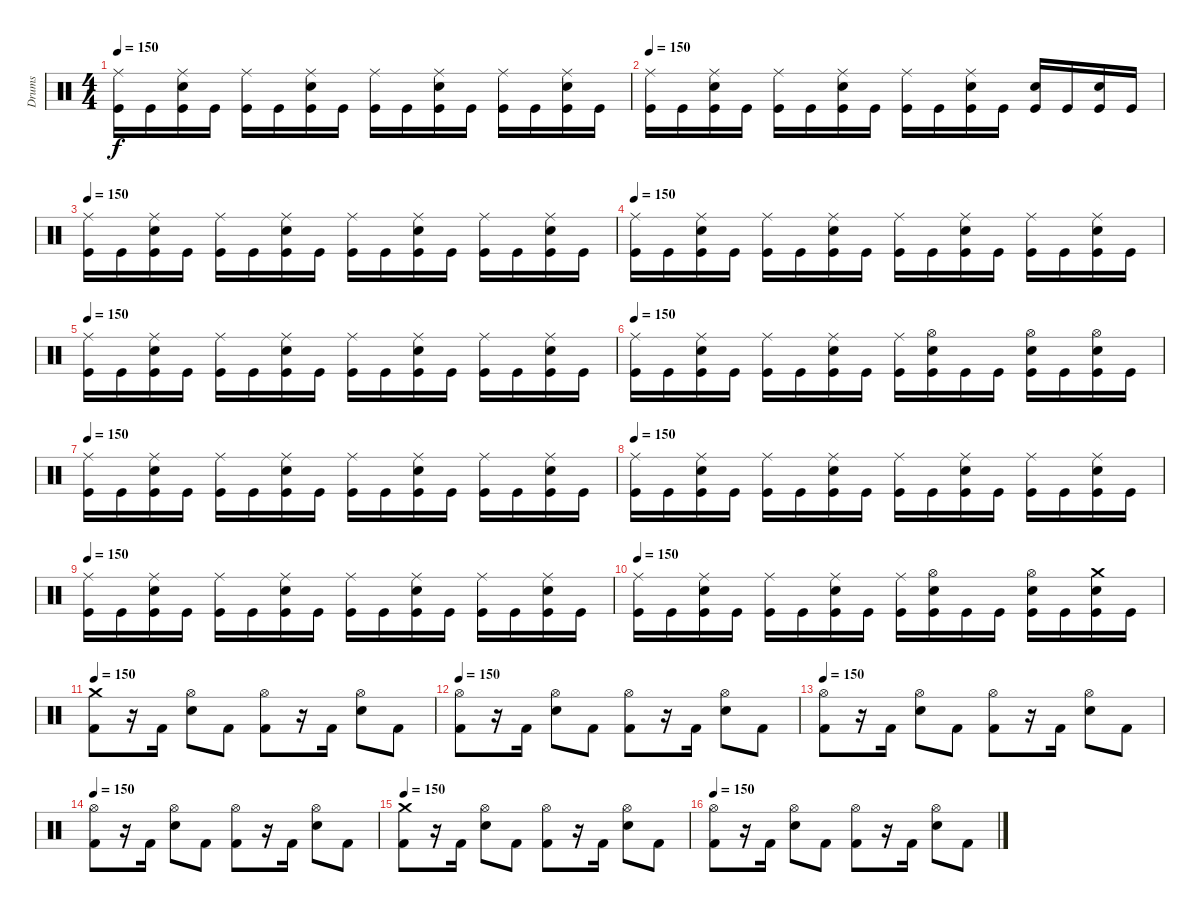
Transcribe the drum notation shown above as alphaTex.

\track ("Drums" "Drums") {instrument percussion}
\staff {score}
\articulation defaults
\ts (4 4)
\tempo 150
\clef neutral
\ks c
("Kick (hit)" "Ride (middle)").16{dy f} "Kick (hit)".16 ("Kick (hit)" "Snare (hit) 2" "Ride (middle)").16 "Kick (hit)".16 ("Kick (hit)" "Ride (middle)").16 "Kick (hit)".16 ("Kick (hit)" "Snare (hit) 2" "Ride (middle)").16 "Kick (hit)".16 ("Kick (hit)" "Ride (middle)").16 "Kick (hit)".16 ("Kick (hit)" "Snare (hit) 2" "Ride (middle)").16 "Kick (hit)".16 ("Kick (hit)" "Ride (middle)").16 "Kick (hit)".16 ("Kick (hit)" "Snare (hit) 2" "Ride (middle)").16 "Kick (hit)".16 |
\tempo 150
("Kick (hit)" "Ride (middle)").16 "Kick (hit)".16 ("Kick (hit)" "Snare (hit) 2" "Ride (middle)").16 "Kick (hit)".16 ("Kick (hit)" "Ride (middle)").16 "Kick (hit)".16 ("Kick (hit)" "Snare (hit) 2" "Ride (middle)").16 "Kick (hit)".16 ("Kick (hit)" "Ride (middle)").16 "Kick (hit)".16 ("Kick (hit)" "Snare (hit) 2" "Ride (middle)").16 "Kick (hit)".16 ("Kick (hit)" "Electric Snare (hit)").16 "Kick (hit)".16 ("Kick (hit)" "Electric Snare (hit)").16 "Kick (hit)".16 |
\tempo 150
("Kick (hit)" "Ride (middle)").16 "Kick (hit)".16 ("Kick (hit)" "Snare (hit) 2" "Ride (middle)").16 "Kick (hit)".16 ("Kick (hit)" "Ride (middle)").16 "Kick (hit)".16 ("Kick (hit)" "Snare (hit) 2" "Ride (middle)").16 "Kick (hit)".16 ("Kick (hit)" "Ride (middle)").16 "Kick (hit)".16 ("Kick (hit)" "Snare (hit) 2" "Ride (middle)").16 "Kick (hit)".16 ("Kick (hit)" "Ride (middle)").16 "Kick (hit)".16 ("Kick (hit)" "Snare (hit) 2" "Ride (middle)").16 "Kick (hit)".16 |
\tempo 150
("Kick (hit)" "Ride (middle)").16 "Kick (hit)".16 ("Kick (hit)" "Snare (hit) 2" "Ride (middle)").16 "Kick (hit)".16 ("Kick (hit)" "Ride (middle)").16 "Kick (hit)".16 ("Kick (hit)" "Snare (hit) 2" "Ride (middle)").16 "Kick (hit)".16 ("Kick (hit)" "Ride (middle)").16 "Kick (hit)".16 ("Kick (hit)" "Snare (hit) 2" "Ride (middle)").16 "Kick (hit)".16 ("Kick (hit)" "Ride (middle)").16 "Kick (hit)".16 ("Kick (hit)" "Snare (hit) 2" "Ride (middle)").16 "Kick (hit)".16 |
\tempo 150
("Kick (hit)" "Ride (middle)").16 "Kick (hit)".16 ("Kick (hit)" "Snare (hit) 2" "Ride (middle)").16 "Kick (hit)".16 ("Kick (hit)" "Ride (middle)").16 "Kick (hit)".16 ("Kick (hit)" "Snare (hit) 2" "Ride (middle)").16 "Kick (hit)".16 ("Kick (hit)" "Ride (middle)").16 "Kick (hit)".16 ("Kick (hit)" "Snare (hit) 2" "Ride (middle)").16 "Kick (hit)".16 ("Kick (hit)" "Ride (middle)").16 "Kick (hit)".16 ("Kick (hit)" "Snare (hit) 2" "Ride (middle)").16 "Kick (hit)".16 |
\tempo 150
("Kick (hit)" "Ride (middle)").16 "Kick (hit)".16 ("Kick (hit)" "Snare (hit) 2" "Ride (middle)").16 "Kick (hit)".16 ("Kick (hit)" "Ride (middle)").16 "Kick (hit)".16 ("Kick (hit)" "Snare (hit) 2" "Ride (middle)").16 "Kick (hit)".16 ("Kick (hit)" "Ride (middle)").16 ("Kick (hit)" "Snare (hit) 2" "Hi-Hat (open)").16 "Kick (hit)".16 "Kick (hit)".16 ("Kick (hit)" "Snare (hit) 2" "Hi-Hat (open)").16 "Kick (hit)".16 ("Kick (hit)" "Snare (hit) 2" "Hi-Hat (open)").16 "Kick (hit)".16 |
\tempo 150
("Kick (hit)" "Ride (middle)").16 "Kick (hit)".16 ("Kick (hit)" "Snare (hit) 2" "Ride (middle)").16 "Kick (hit)".16 ("Kick (hit)" "Ride (middle)").16 "Kick (hit)".16 ("Kick (hit)" "Snare (hit) 2" "Ride (middle)").16 "Kick (hit)".16 ("Kick (hit)" "Ride (middle)").16 "Kick (hit)".16 ("Kick (hit)" "Snare (hit) 2" "Ride (middle)").16 "Kick (hit)".16 ("Kick (hit)" "Ride (middle)").16 "Kick (hit)".16 ("Kick (hit)" "Snare (hit) 2" "Ride (middle)").16 "Kick (hit)".16 |
\tempo 150
("Kick (hit)" "Ride (middle)").16 "Kick (hit)".16 ("Kick (hit)" "Snare (hit) 2" "Ride (middle)").16 "Kick (hit)".16 ("Kick (hit)" "Ride (middle)").16 "Kick (hit)".16 ("Kick (hit)" "Snare (hit) 2" "Ride (middle)").16 "Kick (hit)".16 ("Kick (hit)" "Ride (middle)").16 "Kick (hit)".16 ("Kick (hit)" "Snare (hit) 2" "Ride (middle)").16 "Kick (hit)".16 ("Kick (hit)" "Ride (middle)").16 "Kick (hit)".16 ("Kick (hit)" "Snare (hit) 2" "Ride (middle)").16 "Kick (hit)".16 |
\tempo 150
("Kick (hit)" "Ride (middle)").16 "Kick (hit)".16 ("Kick (hit)" "Snare (hit) 2" "Ride (middle)").16 "Kick (hit)".16 ("Kick (hit)" "Ride (middle)").16 "Kick (hit)".16 ("Kick (hit)" "Snare (hit) 2" "Ride (middle)").16 "Kick (hit)".16 ("Kick (hit)" "Ride (middle)").16 "Kick (hit)".16 ("Kick (hit)" "Snare (hit) 2" "Ride (middle)").16 "Kick (hit)".16 ("Kick (hit)" "Ride (middle)").16 "Kick (hit)".16 ("Kick (hit)" "Snare (hit) 2" "Ride (middle)").16 "Kick (hit)".16 |
\tempo 150
("Kick (hit)" "Ride (middle)").16 "Kick (hit)".16 ("Kick (hit)" "Snare (hit) 2" "Ride (middle)").16 "Kick (hit)".16 ("Kick (hit)" "Ride (middle)").16 "Kick (hit)".16 ("Kick (hit)" "Snare (hit) 2" "Ride (middle)").16 "Kick (hit)".16 ("Kick (hit)" "Ride (middle)").16 ("Kick (hit)" "Snare (hit) 2" "Hi-Hat (open)").16 "Kick (hit)".16 "Kick (hit)".16 ("Kick (hit)" "Snare (hit) 2" "Hi-Hat (open)").16 "Kick (hit)".16 ("Kick (hit)" "Snare (hit) 2" "Crash medium (hit)").16 "Kick (hit)".16 |
\tempo 150
("Kick (hit) 2" "Crash medium (hit)").8 r.16 "Kick (hit) 2".16 ("Electric Snare (hit)" "Hi-Hat (open)").8 "Kick (hit) 2".8 ("Kick (hit) 2" "Hi-Hat (open)").8 r.16 "Kick (hit) 2".16 ("Electric Snare (hit)" "Hi-Hat (open)").8 "Kick (hit) 2".8 |
\tempo 150
("Kick (hit) 2" "Hi-Hat (open)").8 r.16 "Kick (hit) 2".16 ("Electric Snare (hit)" "Hi-Hat (open)").8 "Kick (hit) 2".8 ("Kick (hit) 2" "Hi-Hat (open)").8 r.16 "Kick (hit) 2".16 ("Electric Snare (hit)" "Hi-Hat (open)").8 "Kick (hit) 2".8 |
\tempo 150
("Kick (hit) 2" "Hi-Hat (open)").8 r.16 "Kick (hit) 2".16 ("Electric Snare (hit)" "Hi-Hat (open)").8 "Kick (hit) 2".8 ("Kick (hit) 2" "Hi-Hat (open)").8 r.16 "Kick (hit) 2".16 ("Electric Snare (hit)" "Hi-Hat (open)").8 "Kick (hit) 2".8 |
\tempo 150
("Kick (hit) 2" "Hi-Hat (open)").8 r.16 "Kick (hit) 2".16 ("Electric Snare (hit)" "Hi-Hat (open)").8 "Kick (hit) 2".8 ("Kick (hit) 2" "Hi-Hat (open)").8 r.16 "Kick (hit) 2".16 ("Electric Snare (hit)" "Hi-Hat (open)").8 "Kick (hit) 2".8 |
\tempo 150
("Kick (hit) 2" "Crash medium (hit)").8 r.16 "Kick (hit) 2".16 ("Electric Snare (hit)" "Hi-Hat (open)").8 "Kick (hit) 2".8 ("Kick (hit) 2" "Hi-Hat (open)").8 r.16 "Kick (hit) 2".16 ("Electric Snare (hit)" "Hi-Hat (open)").8 "Kick (hit) 2".8 |
\tempo 150
("Kick (hit) 2" "Hi-Hat (open)").8 r.16 "Kick (hit) 2".16 ("Electric Snare (hit)" "Hi-Hat (open)").8 "Kick (hit) 2".8 ("Kick (hit) 2" "Hi-Hat (open)").8 r.16 "Kick (hit) 2".16 ("Electric Snare (hit)" "Hi-Hat (open)").8 "Kick (hit) 2".8
